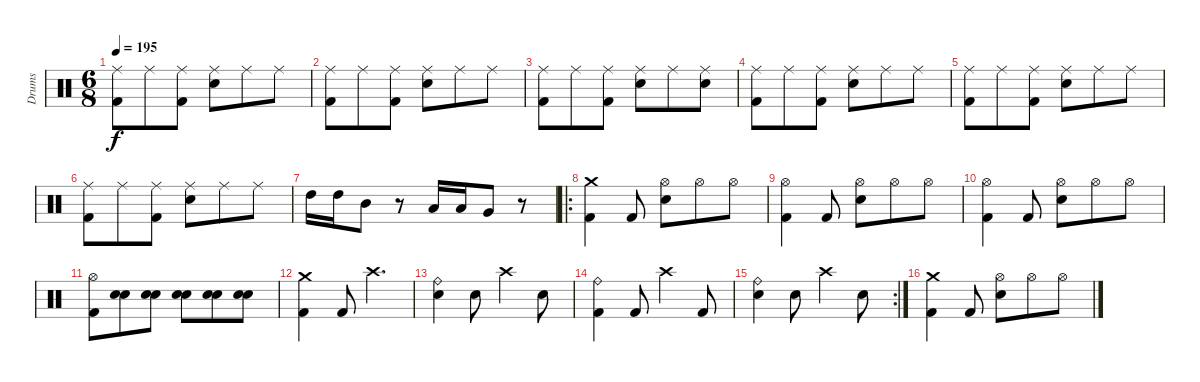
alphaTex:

\track ("Drums" "Drums") {instrument percussion}
\staff {score}
\articulation defaults
\ts (6 8)
\tempo 195
\clef neutral
\ks c
("Ride (middle)" "Kick (hit) 2").8{dy f} "Ride (middle)".8 ("Ride (middle)" "Kick (hit) 2").8 ("Ride (middle)" "Electric Snare (hit)").8 "Ride (middle)".8 "Ride (middle)".8 |
("Ride (middle)" "Kick (hit) 2").8 "Ride (middle)".8 ("Ride (middle)" "Kick (hit) 2").8 ("Ride (middle)" "Electric Snare (hit)").8 "Ride (middle)".8 "Ride (middle)".8 |
("Ride (middle)" "Kick (hit) 2").8 "Ride (middle)".8 ("Ride (middle)" "Kick (hit) 2").8 ("Ride (middle)" "Electric Snare (hit)").8 "Ride (middle)".8 ("Ride (middle)" "Electric Snare (hit)").8 |
("Ride (middle)" "Kick (hit) 2").8 "Ride (middle)".8 ("Ride (middle)" "Kick (hit) 2").8 ("Ride (middle)" "Electric Snare (hit)").8 "Ride (middle)".8 "Ride (middle)".8 |
("Ride (middle)" "Kick (hit) 2").8 "Ride (middle)".8 ("Ride (middle)" "Kick (hit) 2").8 ("Ride (middle)" "Electric Snare (hit)").8 "Ride (middle)".8 "Ride (middle)".8 |
("Ride (middle)" "Kick (hit) 2").8 "Ride (middle)".8 ("Ride (middle)" "Kick (hit) 2").8 ("Ride (middle)" "Electric Snare (hit)").8 "Ride (middle)".8 "Ride (middle)".8 |
"High Tom (hit)".16 "High Tom (hit)".16 "Mid Tom (hit)".8 r.8 "Low Tom (hit)".16 "Low Tom (hit)".16 "Very Low Tom (hit)".8 r.8 |
\ro
("Crash medium (hit)" "Kick (hit) 2").4 "Kick (hit) 2".8 ("Hi-Hat (open)" "Electric Snare (hit)").8 "Hi-Hat (open)".8 "Hi-Hat (open)".8 |
("Hi-Hat (open)" "Kick (hit) 2").4 "Kick (hit) 2".8 ("Hi-Hat (open)" "Electric Snare (hit)").8 "Hi-Hat (open)".8 "Hi-Hat (open)".8 |
("Hi-Hat (open)" "Kick (hit) 2").4 "Kick (hit) 2".8 ("Hi-Hat (open)" "Electric Snare (hit)").8 "Hi-Hat (open)".8 "Hi-Hat (open)".8 |
("Hi-Hat (open)" "Kick (hit) 2").8 ("Electric Snare (hit)" "Electric Snare (hit)").8{bd 120} ("Electric Snare (hit)" "Electric Snare (hit)").8{bu 120} ("Electric Snare (hit)" "Electric Snare (hit)").8{bd 120} ("Electric Snare (hit)" "Electric Snare (hit)").8{bu 120} ("Electric Snare (hit)" "Electric Snare (hit)").8{bd 120} |
("Crash medium (hit)" "Kick (hit) 2").4 "Kick (hit) 2".8 "Crash high (hit)".4{d} |
("Ride (bell)" "Electric Snare (hit)").4 "Electric Snare (hit)".8 "Crash high (hit)".4 "Electric Snare (hit)".8 |
("Ride (bell)" "Kick (hit) 2").4 "Kick (hit) 2".8 "Crash high (hit)".4 "Kick (hit) 2".8 |
\rc 2
("Ride (bell)" "Electric Snare (hit)").4 "Electric Snare (hit)".8 "Crash high (hit)".4 "Electric Snare (hit)".8 |
("Crash medium (hit)" "Kick (hit) 2").4 "Kick (hit) 2".8 ("Hi-Hat (open)" "Electric Snare (hit)").8 "Hi-Hat (open)".8 "Hi-Hat (open)".8
